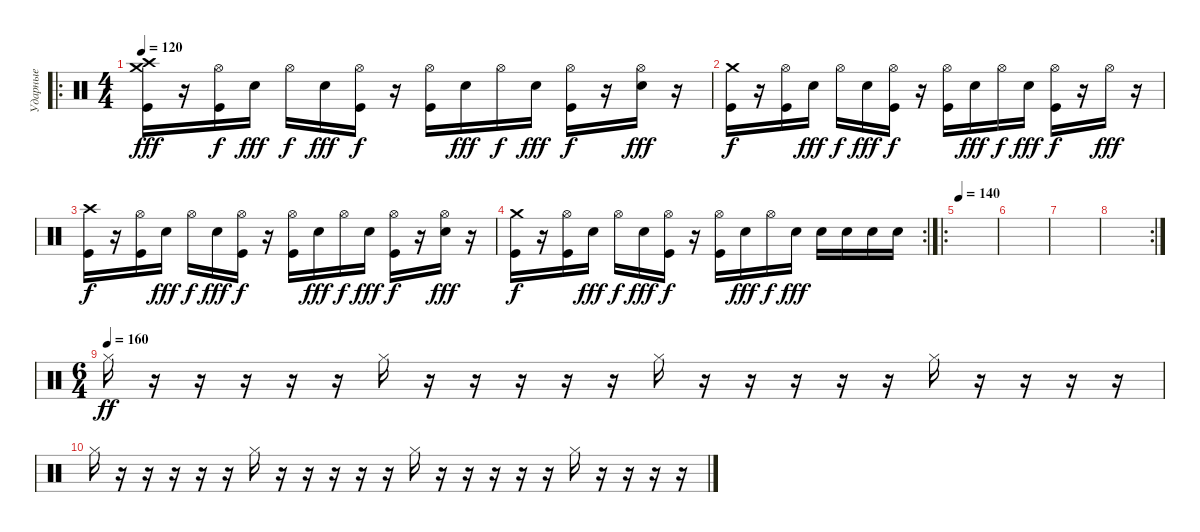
\track ("Ударные" "Ударные") {instrument percussion}
\staff {score}
\articulation defaults
\ro
\ts (4 4)
\tempo 120
\clef neutral
\ks c
("Crash high (hit)" "Crash medium (hit)" "Kick (hit)").16{dy fff} r.16 ("Hi-Hat (open)" "Kick (hit)").16{dy f} "Electric Snare (hit)".16{dy fff} "Hi-Hat (open)".16{dy f} "Electric Snare (hit)".16{dy fff} ("Hi-Hat (open)" "Kick (hit)").16{dy f} r.16 ("Hi-Hat (open)" "Kick (hit)").16 "Electric Snare (hit)".16{dy fff} "Hi-Hat (open)".16{dy f} "Electric Snare (hit)".16{dy fff} ("Hi-Hat (open)" "Kick (hit)").16{dy f} r.16 ("Hi-Hat (open)" "Electric Snare (hit)").16{dy fff} r.16 |
("Crash medium (hit)" "Kick (hit)").16{dy f} r.16 ("Hi-Hat (open)" "Kick (hit)").16 "Electric Snare (hit)".16{dy fff} "Hi-Hat (open)".16{dy f} "Electric Snare (hit)".16{dy fff} ("Hi-Hat (open)" "Kick (hit)").16{dy f} r.16 ("Hi-Hat (open)" "Kick (hit)").16 "Electric Snare (hit)".16{dy fff} "Hi-Hat (open)".16{dy f} "Electric Snare (hit)".16{dy fff} ("Hi-Hat (open)" "Kick (hit)").16{dy f} r.16 "Hi-Hat (open)".16{dy fff} r.16 |
("Crash high (hit)" "Kick (hit)").16{dy f} r.16 ("Hi-Hat (open)" "Kick (hit)").16 "Electric Snare (hit)".16{dy fff} "Hi-Hat (open)".16{dy f} "Electric Snare (hit)".16{dy fff} ("Hi-Hat (open)" "Kick (hit)").16{dy f} r.16 ("Hi-Hat (open)" "Kick (hit)").16 "Electric Snare (hit)".16{dy fff} "Hi-Hat (open)".16{dy f} "Electric Snare (hit)".16{dy fff} ("Hi-Hat (open)" "Kick (hit)").16{dy f} r.16 ("Hi-Hat (open)" "Electric Snare (hit)").16{dy fff} r.16 |
\rc 2
("Crash medium (hit)" "Kick (hit)").16{dy f} r.16 ("Hi-Hat (open)" "Kick (hit)").16 "Electric Snare (hit)".16{dy fff} "Hi-Hat (open)".16{dy f} "Electric Snare (hit)".16{dy fff} ("Hi-Hat (open)" "Kick (hit)").16{dy f} r.16 ("Hi-Hat (open)" "Kick (hit)").16 "Electric Snare (hit)".16{dy fff} "Hi-Hat (open)".16{dy f} "Electric Snare (hit)".16{dy fff} "Electric Snare (hit)".16 "Electric Snare (hit)".16 "Electric Snare (hit)".16 "Electric Snare (hit)".16 |
\ro
\tempo 140
|
|
|
\rc 2
|
\ts (6 4)
\tempo (160)
"Hi-Hat (closed)".16{dy ff} r.16 r.16 r.16 r.16 r.16 "Hi-Hat (closed)".16 r.16 r.16 r.16 r.16 r.16 "Hi-Hat (closed)".16 r.16 r.16 r.16 r.16 r.16 "Hi-Hat (closed)".16 r.16 r.16 r.16 r.16 |
"Hi-Hat (closed)".16 r.16 r.16 r.16 r.16 r.16 "Hi-Hat (closed)".16 r.16 r.16 r.16 r.16 r.16 "Hi-Hat (closed)".16 r.16 r.16 r.16 r.16 r.16 "Hi-Hat (closed)".16 r.16 r.16 r.16 r.16
